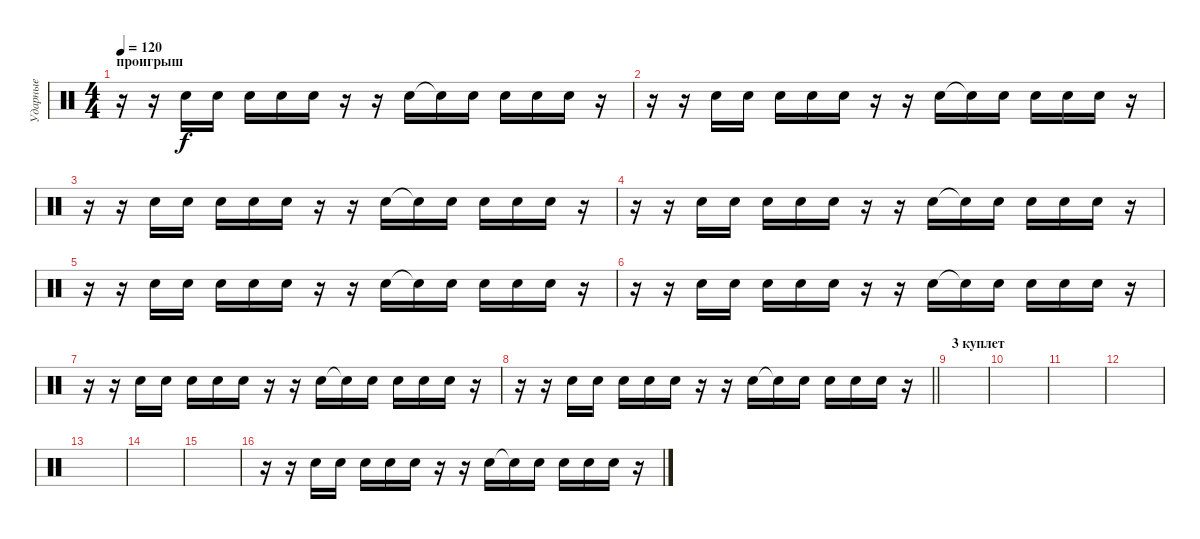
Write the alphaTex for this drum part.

\track ("Ударные" "Ударные") {instrument percussion}
\staff {score}
\articulation defaults
\ts (4 4)
\section ("" "проигрыш")
\tempo 120
\clef neutral
\ks c
r.16{dy f} r.16 "Hand Clap (hit)".16 "Hand Clap (hit)".16 "Hand Clap (hit)".16 "Hand Clap (hit)".16 "Hand Clap (hit)".16 r.16 r.16 "Hand Clap (hit)".16 "Hand Clap (hit)"{t}.16 "Hand Clap (hit)".16 "Hand Clap (hit)".16 "Hand Clap (hit)".16 "Hand Clap (hit)".16 r.16 |
r.16 r.16 "Hand Clap (hit)".16 "Hand Clap (hit)".16 "Hand Clap (hit)".16 "Hand Clap (hit)".16 "Hand Clap (hit)".16 r.16 r.16 "Hand Clap (hit)".16 "Hand Clap (hit)"{t}.16 "Hand Clap (hit)".16 "Hand Clap (hit)".16 "Hand Clap (hit)".16 "Hand Clap (hit)".16 r.16 |
r.16 r.16 "Hand Clap (hit)".16 "Hand Clap (hit)".16 "Hand Clap (hit)".16 "Hand Clap (hit)".16 "Hand Clap (hit)".16 r.16 r.16 "Hand Clap (hit)".16 "Hand Clap (hit)"{t}.16 "Hand Clap (hit)".16 "Hand Clap (hit)".16 "Hand Clap (hit)".16 "Hand Clap (hit)".16 r.16 |
r.16 r.16 "Hand Clap (hit)".16 "Hand Clap (hit)".16 "Hand Clap (hit)".16 "Hand Clap (hit)".16 "Hand Clap (hit)".16 r.16 r.16 "Hand Clap (hit)".16 "Hand Clap (hit)"{t}.16 "Hand Clap (hit)".16 "Hand Clap (hit)".16 "Hand Clap (hit)".16 "Hand Clap (hit)".16 r.16 |
r.16 r.16 "Hand Clap (hit)".16 "Hand Clap (hit)".16 "Hand Clap (hit)".16 "Hand Clap (hit)".16 "Hand Clap (hit)".16 r.16 r.16 "Hand Clap (hit)".16 "Hand Clap (hit)"{t}.16 "Hand Clap (hit)".16 "Hand Clap (hit)".16 "Hand Clap (hit)".16 "Hand Clap (hit)".16 r.16 |
r.16 r.16 "Hand Clap (hit)".16 "Hand Clap (hit)".16 "Hand Clap (hit)".16 "Hand Clap (hit)".16 "Hand Clap (hit)".16 r.16 r.16 "Hand Clap (hit)".16 "Hand Clap (hit)"{t}.16 "Hand Clap (hit)".16 "Hand Clap (hit)".16 "Hand Clap (hit)".16 "Hand Clap (hit)".16 r.16 |
r.16 r.16 "Hand Clap (hit)".16 "Hand Clap (hit)".16 "Hand Clap (hit)".16 "Hand Clap (hit)".16 "Hand Clap (hit)".16 r.16 r.16 "Hand Clap (hit)".16 "Hand Clap (hit)"{t}.16 "Hand Clap (hit)".16 "Hand Clap (hit)".16 "Hand Clap (hit)".16 "Hand Clap (hit)".16 r.16 |
\barLineRight lightlight
r.16 r.16 "Hand Clap (hit)".16 "Hand Clap (hit)".16 "Hand Clap (hit)".16 "Hand Clap (hit)".16 "Hand Clap (hit)".16 r.16 r.16 "Hand Clap (hit)".16 "Hand Clap (hit)"{t}.16 "Hand Clap (hit)".16 "Hand Clap (hit)".16 "Hand Clap (hit)".16 "Hand Clap (hit)".16 r.16 |
\section ("" "3 куплет")
|
|
|
|
|
|
|
r.16 r.16 "Hand Clap (hit)".16 "Hand Clap (hit)".16 "Hand Clap (hit)".16 "Hand Clap (hit)".16 "Hand Clap (hit)".16 r.16 r.16 "Hand Clap (hit)".16 "Hand Clap (hit)"{t}.16 "Hand Clap (hit)".16 "Hand Clap (hit)".16 "Hand Clap (hit)".16 "Hand Clap (hit)".16 r.16
